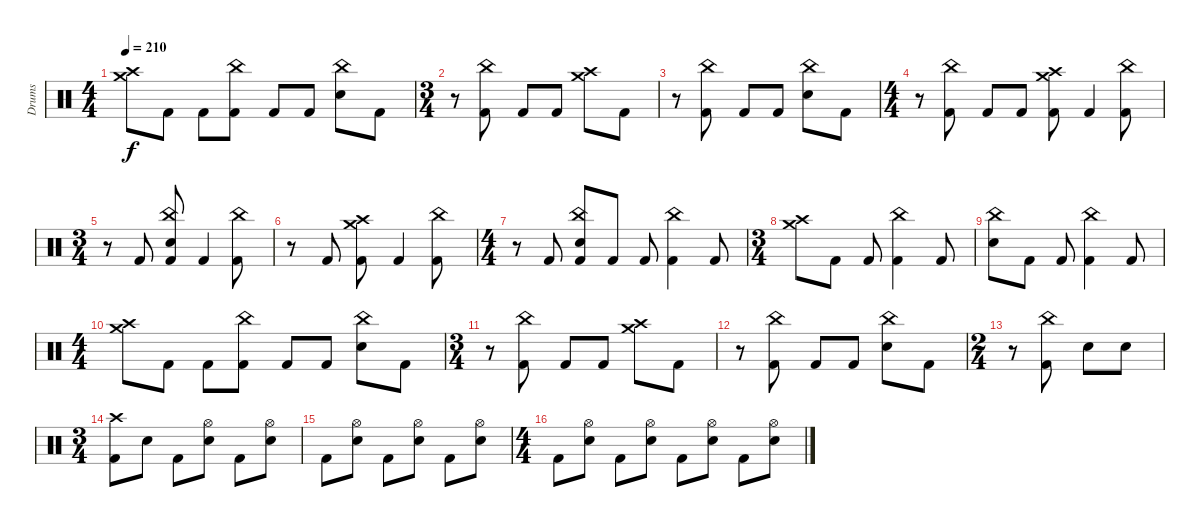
\track ("Drums" "Drums") {instrument percussion}
\staff {score}
\articulation defaults
\ts (4 4)
\tempo 210
\clef neutral
\ks c
("Crash high (hit)" "Crash medium (hit)").8{dy f} "Kick (hit) 2".8 "Kick (hit) 2".8 ("China (hit)" "Kick (hit) 2").8 "Kick (hit) 2".8 "Kick (hit) 2".8 ("China (hit)" "Electric Snare (hit)").8 "Kick (hit) 2".8 |
\ts (3 4)
r.8 ("China (hit)" "Kick (hit) 2").8 "Kick (hit) 2".8 "Kick (hit) 2".8 ("Crash high (hit)" "Crash medium (hit)").8 "Kick (hit) 2".8 |
r.8 ("China (hit)" "Kick (hit) 2").8 "Kick (hit) 2".8 "Kick (hit) 2".8 ("China (hit)" "Electric Snare (hit)").8 "Kick (hit) 2".8 |
\ts (4 4)
r.8 ("China (hit)" "Kick (hit) 2").8 "Kick (hit) 2".8 "Kick (hit) 2".8 ("Crash high (hit)" "Crash medium (hit)" "Kick (hit) 2").8 "Kick (hit) 2".4 ("China (hit)" "Kick (hit) 2").8 |
\ts (3 4)
r.8 "Kick (hit) 2".8 ("China (hit)" "Electric Snare (hit)" "Kick (hit) 2").8 "Kick (hit) 2".4 ("China (hit)" "Kick (hit) 2").8 |
r.8 "Kick (hit) 2".8 ("Crash high (hit)" "Crash medium (hit)" "Kick (hit) 2").8 "Kick (hit) 2".4 ("China (hit)" "Kick (hit) 2").8 |
\ts (4 4)
r.8 "Kick (hit) 2".8 ("China (hit)" "Electric Snare (hit)" "Kick (hit) 2").8 "Kick (hit) 2".8 "Kick (hit) 2".8 ("China (hit)" "Kick (hit) 2").4 "Kick (hit) 2".8 |
\ts (3 4)
("Crash high (hit)" "Crash medium (hit)").8 "Kick (hit) 2".8 "Kick (hit) 2".8 ("China (hit)" "Kick (hit) 2").4 "Kick (hit) 2".8 |
("China (hit)" "Electric Snare (hit)").8 "Kick (hit) 2".8 "Kick (hit) 2".8 ("China (hit)" "Kick (hit) 2").4 "Kick (hit) 2".8 |
\ts (4 4)
("Crash high (hit)" "Crash medium (hit)").8 "Kick (hit) 2".8 "Kick (hit) 2".8 ("China (hit)" "Kick (hit) 2").8 "Kick (hit) 2".8 "Kick (hit) 2".8 ("China (hit)" "Electric Snare (hit)").8 "Kick (hit) 2".8 |
\ts (3 4)
r.8 ("China (hit)" "Kick (hit) 2").8 "Kick (hit) 2".8 "Kick (hit) 2".8 ("Crash high (hit)" "Crash medium (hit)").8 "Kick (hit) 2".8 |
r.8 ("China (hit)" "Kick (hit) 2").8 "Kick (hit) 2".8 "Kick (hit) 2".8 ("China (hit)" "Electric Snare (hit)").8 "Kick (hit) 2".8 |
\ts (2 4)
r.8 ("China (hit)" "Kick (hit) 2").8 "Electric Snare (hit)".8 "Electric Snare (hit)".8 |
\ts (3 4)
("Crash high (hit)" "Kick (hit) 2").8 "Electric Snare (hit)".8 "Kick (hit) 2".8 ("Hi-Hat (open)" "Electric Snare (hit)").8 "Kick (hit) 2".8 ("Hi-Hat (open)" "Electric Snare (hit)").8 |
"Kick (hit) 2".8 ("Hi-Hat (open)" "Electric Snare (hit)").8 "Kick (hit) 2".8 ("Hi-Hat (open)" "Electric Snare (hit)").8 "Kick (hit) 2".8 ("Hi-Hat (open)" "Electric Snare (hit)").8 |
\ts (4 4)
"Kick (hit) 2".8 ("Hi-Hat (open)" "Electric Snare (hit)").8 "Kick (hit) 2".8 ("Hi-Hat (open)" "Electric Snare (hit)").8 "Kick (hit) 2".8 ("Hi-Hat (open)" "Electric Snare (hit)").8 "Kick (hit) 2".8 ("Hi-Hat (open)" "Electric Snare (hit)").8
